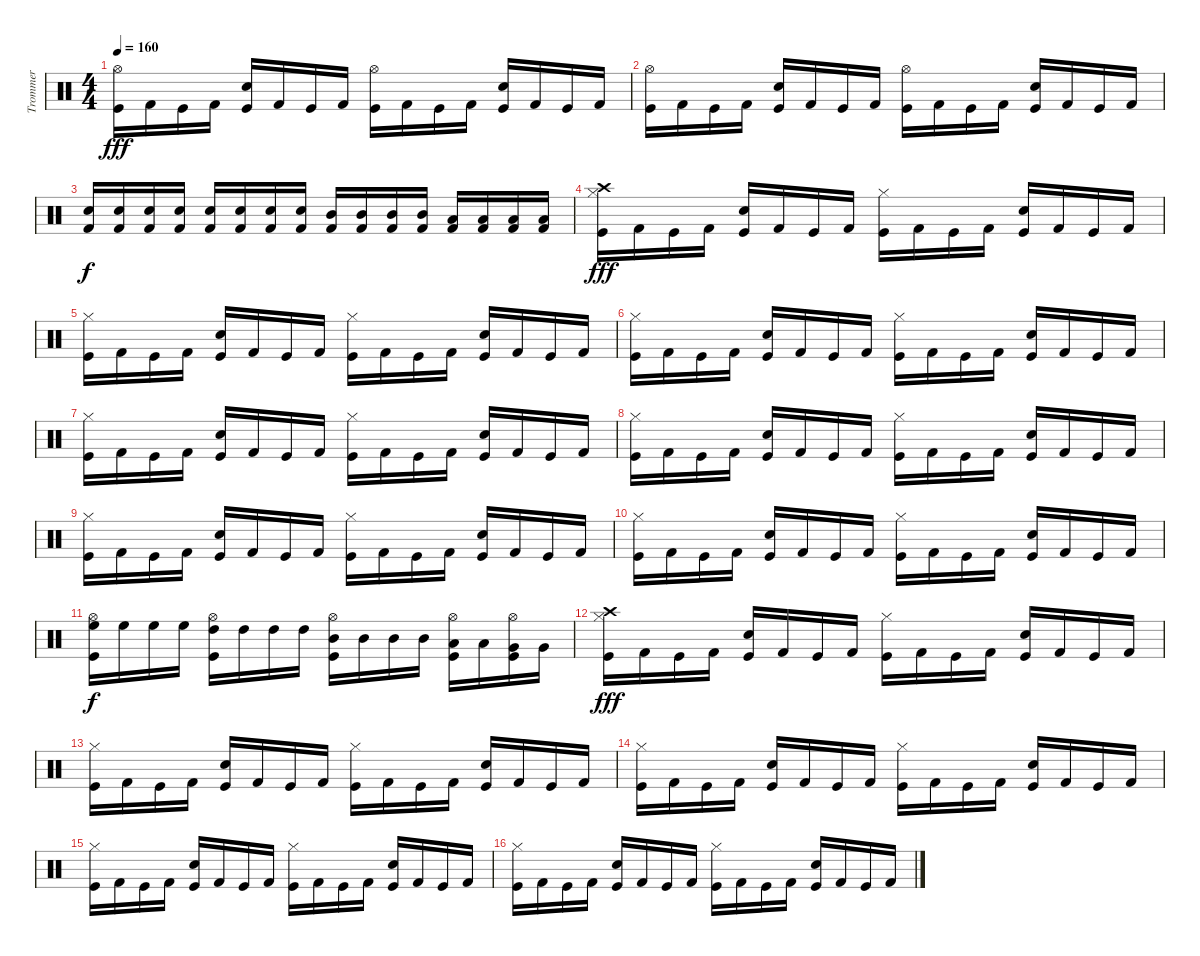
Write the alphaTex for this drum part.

\track ("Trommer" "Trommer") {instrument percussion}
\staff {score}
\articulation defaults
\ts (4 4)
\tempo 160
\clef neutral
\ks c
("Hi-Hat (open)" "Kick (hit)").16{dy fff} "Kick (hit) 2".16 "Kick (hit)".16 "Kick (hit) 2".16 ("Snare (hit) 2" "Kick (hit)").16 "Kick (hit) 2".16 "Kick (hit)".16 "Kick (hit) 2".16 ("Hi-Hat (open)" "Kick (hit)").16 "Kick (hit) 2".16 "Kick (hit)".16 "Kick (hit) 2".16 ("Snare (hit) 2" "Kick (hit)").16 "Kick (hit) 2".16 "Kick (hit)".16 "Kick (hit) 2".16 |
("Hi-Hat (open)" "Kick (hit)").16 "Kick (hit) 2".16 "Kick (hit)".16 "Kick (hit) 2".16 ("Snare (hit) 2" "Kick (hit)").16 "Kick (hit) 2".16 "Kick (hit)".16 "Kick (hit) 2".16 ("Hi-Hat (open)" "Kick (hit)").16 "Kick (hit) 2".16 "Kick (hit)".16 "Kick (hit) 2".16 ("Snare (hit) 2" "Kick (hit)").16 "Kick (hit) 2".16 "Kick (hit)".16 "Kick (hit) 2".16 |
("Snare (hit) 2" "Kick (hit) 2").16{dy f} ("Snare (hit) 2" "Kick (hit) 2").16 ("Snare (hit) 2" "Kick (hit) 2").16 ("Snare (hit) 2" "Kick (hit) 2").16 ("Snare (hit) 2" "Kick (hit) 2").16 ("Snare (hit) 2" "Kick (hit) 2").16 ("Snare (hit) 2" "Kick (hit) 2").16 ("Snare (hit) 2" "Kick (hit) 2").16 ("Mid Tom (hit)" "Kick (hit) 2").16 ("Mid Tom (hit)" "Kick (hit) 2").16 ("Mid Tom (hit)" "Kick (hit) 2").16 ("Mid Tom (hit)" "Kick (hit) 2").16 ("Low Tom (hit)" "Kick (hit) 2").16 ("Low Tom (hit)" "Kick (hit) 2").16 ("Low Tom (hit)" "Kick (hit) 2").16 ("Low Tom (hit)" "Kick (hit) 2").16 |
("Crash high (hit)" "Hi-Hat (closed)" "Kick (hit)").16{dy fff} "Kick (hit) 2".16 "Kick (hit)".16 "Kick (hit) 2".16 ("Snare (hit) 2" "Kick (hit)").16 "Kick (hit) 2".16 "Kick (hit)".16 "Kick (hit) 2".16 ("Hi-Hat (closed)" "Kick (hit)").16 "Kick (hit) 2".16 "Kick (hit)".16 "Kick (hit) 2".16 ("Snare (hit) 2" "Kick (hit)").16 "Kick (hit) 2".16 "Kick (hit)".16 "Kick (hit) 2".16 |
("Hi-Hat (closed)" "Kick (hit)").16 "Kick (hit) 2".16 "Kick (hit)".16 "Kick (hit) 2".16 ("Snare (hit) 2" "Kick (hit)").16 "Kick (hit) 2".16 "Kick (hit)".16 "Kick (hit) 2".16 ("Hi-Hat (closed)" "Kick (hit)").16 "Kick (hit) 2".16 "Kick (hit)".16 "Kick (hit) 2".16 ("Snare (hit) 2" "Kick (hit)").16 "Kick (hit) 2".16 "Kick (hit)".16 "Kick (hit) 2".16 |
("Hi-Hat (closed)" "Kick (hit)").16 "Kick (hit) 2".16 "Kick (hit)".16 "Kick (hit) 2".16 ("Snare (hit) 2" "Kick (hit)").16 "Kick (hit) 2".16 "Kick (hit)".16 "Kick (hit) 2".16 ("Hi-Hat (closed)" "Kick (hit)").16 "Kick (hit) 2".16 "Kick (hit)".16 "Kick (hit) 2".16 ("Snare (hit) 2" "Kick (hit)").16 "Kick (hit) 2".16 "Kick (hit)".16 "Kick (hit) 2".16 |
("Hi-Hat (closed)" "Kick (hit)").16 "Kick (hit) 2".16 "Kick (hit)".16 "Kick (hit) 2".16 ("Snare (hit) 2" "Kick (hit)").16 "Kick (hit) 2".16 "Kick (hit)".16 "Kick (hit) 2".16 ("Hi-Hat (closed)" "Kick (hit)").16 "Kick (hit) 2".16 "Kick (hit)".16 "Kick (hit) 2".16 ("Snare (hit) 2" "Kick (hit)").16 "Kick (hit) 2".16 "Kick (hit)".16 "Kick (hit) 2".16 |
("Hi-Hat (closed)" "Kick (hit)").16 "Kick (hit) 2".16 "Kick (hit)".16 "Kick (hit) 2".16 ("Snare (hit) 2" "Kick (hit)").16 "Kick (hit) 2".16 "Kick (hit)".16 "Kick (hit) 2".16 ("Hi-Hat (closed)" "Kick (hit)").16 "Kick (hit) 2".16 "Kick (hit)".16 "Kick (hit) 2".16 ("Snare (hit) 2" "Kick (hit)").16 "Kick (hit) 2".16 "Kick (hit)".16 "Kick (hit) 2".16 |
("Hi-Hat (closed)" "Kick (hit)").16 "Kick (hit) 2".16 "Kick (hit)".16 "Kick (hit) 2".16 ("Snare (hit) 2" "Kick (hit)").16 "Kick (hit) 2".16 "Kick (hit)".16 "Kick (hit) 2".16 ("Hi-Hat (closed)" "Kick (hit)").16 "Kick (hit) 2".16 "Kick (hit)".16 "Kick (hit) 2".16 ("Snare (hit) 2" "Kick (hit)").16 "Kick (hit) 2".16 "Kick (hit)".16 "Kick (hit) 2".16 |
("Hi-Hat (closed)" "Kick (hit)").16 "Kick (hit) 2".16 "Kick (hit)".16 "Kick (hit) 2".16 ("Snare (hit) 2" "Kick (hit)").16 "Kick (hit) 2".16 "Kick (hit)".16 "Kick (hit) 2".16 ("Hi-Hat (closed)" "Kick (hit)").16 "Kick (hit) 2".16 "Kick (hit)".16 "Kick (hit) 2".16 ("Snare (hit) 2" "Kick (hit)").16 "Kick (hit) 2".16 "Kick (hit)".16 "Kick (hit) 2".16 |
("Hi-Hat (open)" "High Floor Tom (hit)" "Kick (hit)").16{dy f} "High Floor Tom (hit)".16 "High Floor Tom (hit)".16 "High Floor Tom (hit)".16 ("Hi-Hat (open)" "High Tom (hit)" "Kick (hit)").16 "High Tom (hit)".16 "High Tom (hit)".16 "High Tom (hit)".16 ("Hi-Hat (open)" "Mid Tom (hit)" "Kick (hit)").16 "Mid Tom (hit)".16 "Mid Tom (hit)".16 "Mid Tom (hit)".16 ("Hi-Hat (open)" "Low Tom (hit)" "Kick (hit)").16 "Low Tom (hit)".16 ("Hi-Hat (open)" "Very Low Tom (hit)" "Kick (hit)").16 "Very Low Tom (hit)".16 |
("Crash high (hit)" "Hi-Hat (closed)" "Kick (hit)").16{dy fff} "Kick (hit) 2".16 "Kick (hit)".16 "Kick (hit) 2".16 ("Snare (hit) 2" "Kick (hit)").16 "Kick (hit) 2".16 "Kick (hit)".16 "Kick (hit) 2".16 ("Hi-Hat (closed)" "Kick (hit)").16 "Kick (hit) 2".16 "Kick (hit)".16 "Kick (hit) 2".16 ("Snare (hit) 2" "Kick (hit)").16 "Kick (hit) 2".16 "Kick (hit)".16 "Kick (hit) 2".16 |
("Hi-Hat (closed)" "Kick (hit)").16 "Kick (hit) 2".16 "Kick (hit)".16 "Kick (hit) 2".16 ("Snare (hit) 2" "Kick (hit)").16 "Kick (hit) 2".16 "Kick (hit)".16 "Kick (hit) 2".16 ("Hi-Hat (closed)" "Kick (hit)").16 "Kick (hit) 2".16 "Kick (hit)".16 "Kick (hit) 2".16 ("Snare (hit) 2" "Kick (hit)").16 "Kick (hit) 2".16 "Kick (hit)".16 "Kick (hit) 2".16 |
("Hi-Hat (closed)" "Kick (hit)").16 "Kick (hit) 2".16 "Kick (hit)".16 "Kick (hit) 2".16 ("Snare (hit) 2" "Kick (hit)").16 "Kick (hit) 2".16 "Kick (hit)".16 "Kick (hit) 2".16 ("Hi-Hat (closed)" "Kick (hit)").16 "Kick (hit) 2".16 "Kick (hit)".16 "Kick (hit) 2".16 ("Snare (hit) 2" "Kick (hit)").16 "Kick (hit) 2".16 "Kick (hit)".16 "Kick (hit) 2".16 |
("Hi-Hat (closed)" "Kick (hit)").16 "Kick (hit) 2".16 "Kick (hit)".16 "Kick (hit) 2".16 ("Snare (hit) 2" "Kick (hit)").16 "Kick (hit) 2".16 "Kick (hit)".16 "Kick (hit) 2".16 ("Hi-Hat (closed)" "Kick (hit)").16 "Kick (hit) 2".16 "Kick (hit)".16 "Kick (hit) 2".16 ("Snare (hit) 2" "Kick (hit)").16 "Kick (hit) 2".16 "Kick (hit)".16 "Kick (hit) 2".16 |
("Hi-Hat (closed)" "Kick (hit)").16 "Kick (hit) 2".16 "Kick (hit)".16 "Kick (hit) 2".16 ("Snare (hit) 2" "Kick (hit)").16 "Kick (hit) 2".16 "Kick (hit)".16 "Kick (hit) 2".16 ("Hi-Hat (closed)" "Kick (hit)").16 "Kick (hit) 2".16 "Kick (hit)".16 "Kick (hit) 2".16 ("Snare (hit) 2" "Kick (hit)").16 "Kick (hit) 2".16 "Kick (hit)".16 "Kick (hit) 2".16
